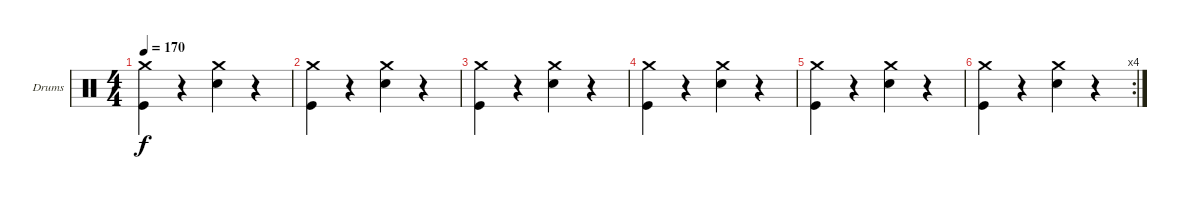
\defaultSystemsLayout 4
\bracketExtendMode groupsimilarinstruments
\firstSystemTrackNameOrientation horizontal
\otherSystemsTrackNameOrientation horizontal
\track ("Drumkit" "Drums") {instrument percussion}
\staff {score}
\articulation defaults
\ts (4 4)
\tempo 170
\clef neutral
\ks c
("Crash medium (hit)" "Kick (hit)").4{dy f} r.4 ("Crash medium (hit)" "Snare (hit) 2").4 r.4 |
("Crash medium (hit)" "Kick (hit)").4 r.4 ("Crash medium (hit)" "Snare (hit) 2").4 r.4 |
("Crash medium (hit)" "Kick (hit)").4 r.4 ("Crash medium (hit)" "Snare (hit) 2").4 r.4 |
("Crash medium (hit)" "Kick (hit)").4 r.4 ("Crash medium (hit)" "Snare (hit) 2").4 r.4 |
("Crash medium (hit)" "Kick (hit)").4 r.4 ("Crash medium (hit)" "Snare (hit) 2").4 r.4 |
\rc 4
("Crash medium (hit)" "Kick (hit)").4 r.4 ("Crash medium (hit)" "Snare (hit) 2").4 r.4
